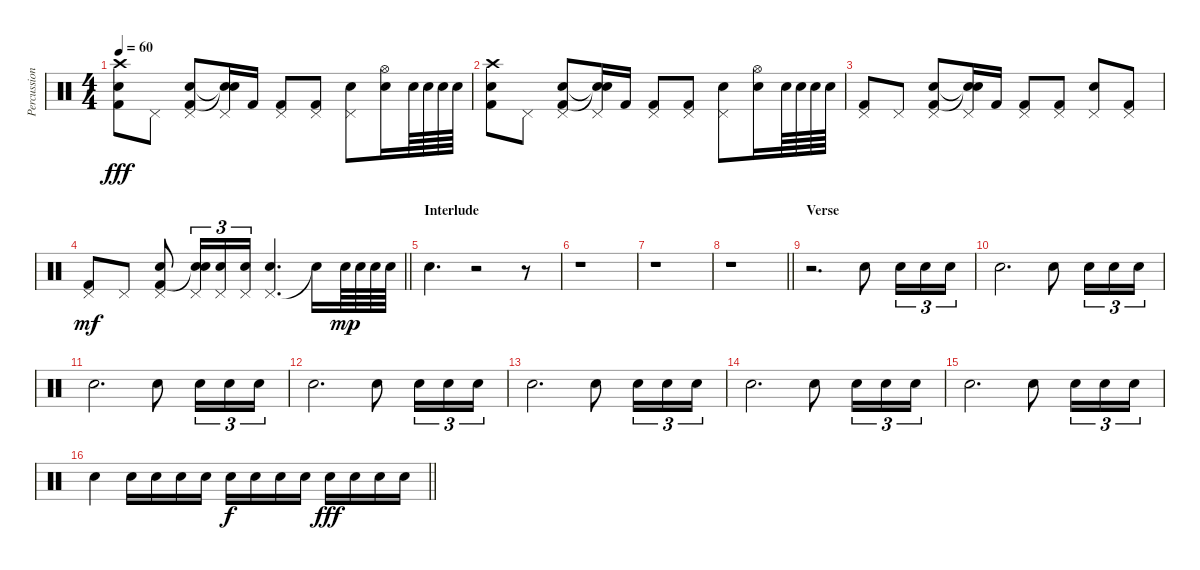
\track ("Percussioni" "Percussion") {instrument percussion}
\staff {score}
\articulation defaults
\ts (4 4)
\tempo 60
\clef neutral
\ks c
("Crash high (hit)" "Snare (hit) 2" "Kick (hit) 2").8{dy fff} "Pedal Hi-Hat (hit)".8 ("Pedal Hi-Hat (hit)" "Snare (hit) 2" "Kick (hit) 2").8 ("Pedal Hi-Hat (hit)" "Snare (hit)"{t} "Snare (hit)"{t}).16 "Kick (hit) 2".16 ("Pedal Hi-Hat (hit)" "Kick (hit) 2").8 ("Pedal Hi-Hat (hit)" "Kick (hit) 2").8 ("Pedal Hi-Hat (hit)" "Snare (hit) 2").8 ("Hi-Hat (open)" "Snare (hit) 2").16 "Snare (hit) 2".64 "Snare (hit) 2".64 "Snare (hit) 2".64 "Snare (hit) 2".64 |
("Crash high (hit)" "Snare (hit) 2" "Kick (hit) 2").8 "Pedal Hi-Hat (hit)".8 ("Pedal Hi-Hat (hit)" "Snare (hit) 2" "Kick (hit) 2").8 ("Pedal Hi-Hat (hit)" "Snare (hit)"{t} "Snare (hit)"{t}).16 "Kick (hit) 2".16 ("Pedal Hi-Hat (hit)" "Kick (hit) 2").8 ("Pedal Hi-Hat (hit)" "Kick (hit) 2").8 ("Pedal Hi-Hat (hit)" "Snare (hit) 2").8 ("Hi-Hat (open)" "Snare (hit) 2").16 "Snare (hit) 2".64 "Snare (hit) 2".64 "Snare (hit) 2".64 "Snare (hit) 2".64 |
("Pedal Hi-Hat (hit)" "Kick (hit) 2").8 "Pedal Hi-Hat (hit)".8 ("Pedal Hi-Hat (hit)" "Snare (hit) 2" "Kick (hit) 2").8 ("Pedal Hi-Hat (hit)" "Snare (hit)"{t} "Snare (hit)"{t}).16 "Kick (hit) 2".16 ("Pedal Hi-Hat (hit)" "Kick (hit) 2").8 ("Pedal Hi-Hat (hit)" "Kick (hit) 2").8 ("Pedal Hi-Hat (hit)" "Snare (hit) 2").8 ("Pedal Hi-Hat (hit)" "Kick (hit) 2").8 |
\barLineRight lightlight
("Pedal Hi-Hat (hit)" "Kick (hit) 2").8{dy mf} "Pedal Hi-Hat (hit)".8 ("Pedal Hi-Hat (hit)" "Snare (hit) 2" "Kick (hit) 2").8 ("Pedal Hi-Hat (hit)" "Snare (hit) 2" "Snare (hit)"{t}).16{tu (3 2)} ("Pedal Hi-Hat (hit)" "Snare (hit) 2").16{tu (3 2)} ("Pedal Hi-Hat (hit)" "Snare (hit) 2").16{tu (3 2)} ("Pedal Hi-Hat (hit)" "Snare (hit) 2").4{d} "Snare (hit) 2"{t}.16 "Snare (hit) 2".64{dy mp} "Snare (hit) 2".64 "Snare (hit) 2".64 "Snare (hit) 2".64 |
\section ("" "Interlude")
"Snare (hit) 2".4{d} r.2 r.8 |
r.1 |
r.1 |
\barLineRight lightlight
r.1 |
\section ("" "Verse")
r.2{d} "Snare (hit) 2".8 "Snare (hit) 2".16{tu (3 2)} "Snare (hit) 2".16{tu (3 2)} "Snare (hit) 2".16{tu (3 2)} |
"Snare (hit) 2".2{d} "Snare (hit) 2".8 "Snare (hit) 2".16{tu (3 2)} "Snare (hit) 2".16{tu (3 2)} "Snare (hit) 2".16{tu (3 2)} |
"Snare (hit) 2".2{d} "Snare (hit) 2".8 "Snare (hit) 2".16{tu (3 2)} "Snare (hit) 2".16{tu (3 2)} "Snare (hit) 2".16{tu (3 2)} |
"Snare (hit) 2".2{d} "Snare (hit) 2".8 "Snare (hit) 2".16{tu (3 2)} "Snare (hit) 2".16{tu (3 2)} "Snare (hit) 2".16{tu (3 2)} |
"Snare (hit) 2".2{d} "Snare (hit) 2".8 "Snare (hit) 2".16{tu (3 2)} "Snare (hit) 2".16{tu (3 2)} "Snare (hit) 2".16{tu (3 2)} |
"Snare (hit) 2".2{d} "Snare (hit) 2".8 "Snare (hit) 2".16{tu (3 2)} "Snare (hit) 2".16{tu (3 2)} "Snare (hit) 2".16{tu (3 2)} |
"Snare (hit) 2".2{d} "Snare (hit) 2".8 "Snare (hit) 2".16{tu (3 2)} "Snare (hit) 2".16{tu (3 2)} "Snare (hit) 2".16{tu (3 2)} |
\barLineRight lightlight "Snare (hit) 2".4 "Snare (hit) 2".16 "Snare (hit) 2".16 "Snare (hit) 2".16 "Snare (hit) 2".16 "Snare (hit) 2".16{dy f} "Snare (hit) 2".16 "Snare (hit) 2".16 "Snare (hit) 2".16 "Snare (hit) 2".16{dy fff} "Snare (hit) 2".16 "Snare (hit) 2".16 "Snare (hit) 2".16
